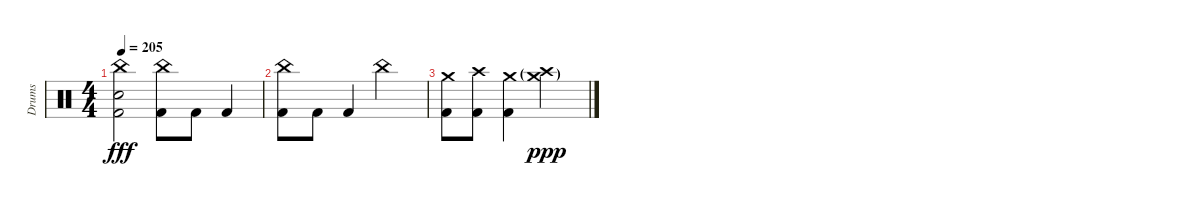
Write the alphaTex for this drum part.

\track ("Drums" "Drums") {instrument percussion}
\staff {score}
\articulation defaults
\ts (4 4)
\tempo 205
\clef neutral
\ks c
("China (hit)" "Snare (hit) 2" "Kick (hit) 2").2{dy fff} ("China (hit)" "Kick (hit) 2").8 "Kick (hit) 2".8 "Kick (hit) 2".4 |
("China (hit)" "Kick (hit) 2").8 "Kick (hit) 2".8 "Kick (hit) 2".4 "China (hit)".2 |
("Crash medium (hit)" "Kick (hit) 2").8 ("Crash high (hit)" "Kick (hit) 2").8 ("Crash medium (hit)" "Kick (hit) 2").4 ("Crash medium (hit)"{g} "Crash high (hit)"{g}).2{dy ppp}
